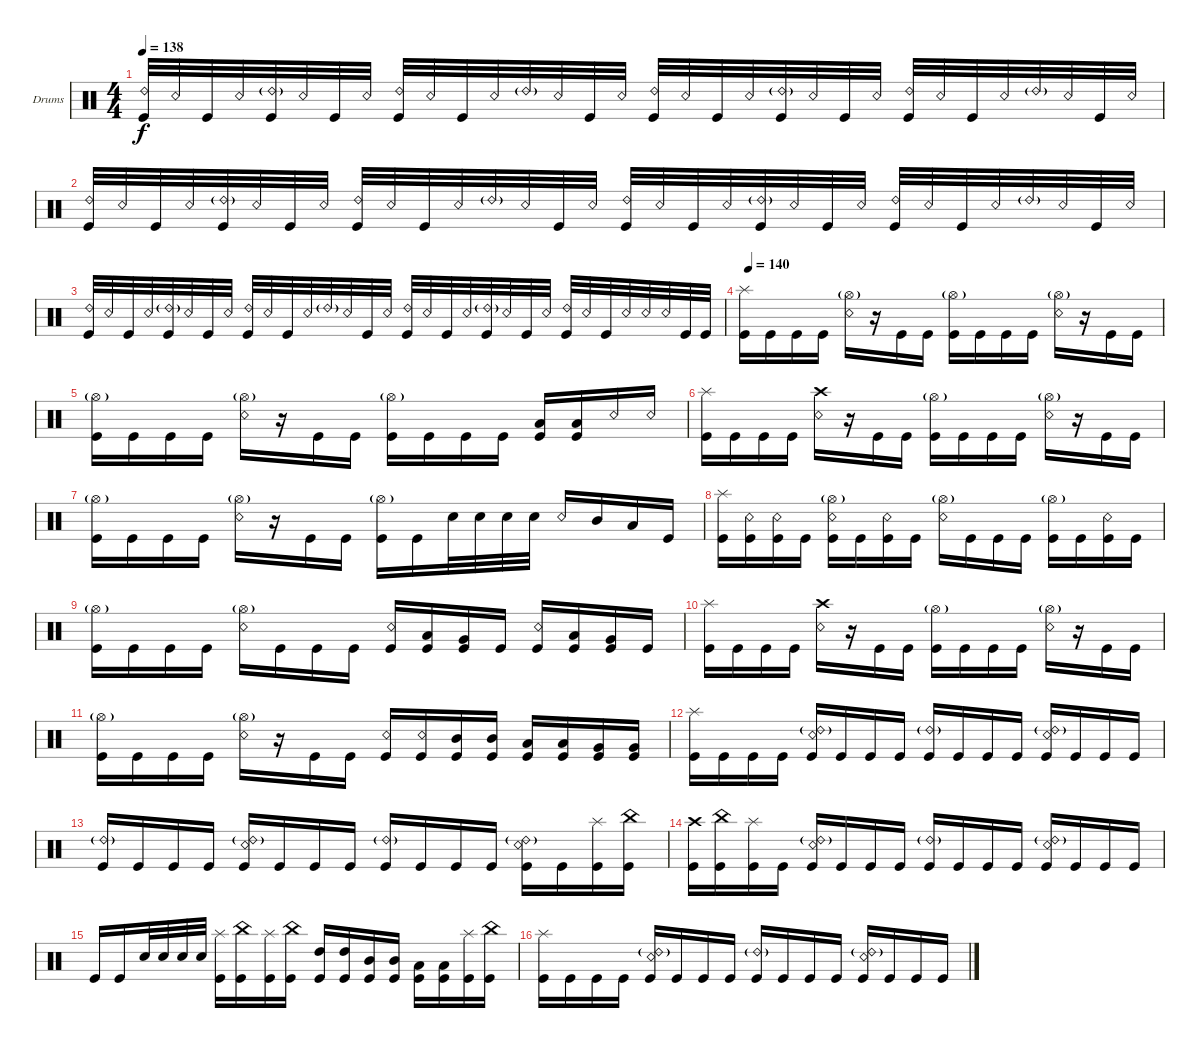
\defaultSystemsLayout 4
\bracketExtendMode groupsimilarinstruments
\firstSystemTrackNameOrientation horizontal
\otherSystemsTrackNameOrientation horizontal
\track ("Drumkit" "Drums") {instrument percussion}
\staff {score}
\articulation defaults
\ts (4 4)
\tempo 138
\clef neutral
\ks c
("Ride (bell) 2" "Kick (hit)").32{dy f} "Snare (rim shot)".32 "Kick (hit)".32 "Snare (rim shot)".32 ("Kick (hit)" "Ride (bell) 2"{g}).32 "Snare (rim shot)".32 "Kick (hit)".32 "Snare (rim shot)".32 ("Ride (bell) 2" "Kick (hit)").32 "Snare (rim shot)".32 "Kick (hit)".32 "Snare (rim shot)".32 "Ride (bell) 2"{g}.32 "Snare (rim shot)".32 "Kick (hit)".32 "Snare (rim shot)".32 ("Ride (bell) 2" "Kick (hit)").32 "Snare (rim shot)".32 "Kick (hit)".32 "Snare (rim shot)".32 ("Kick (hit)" "Ride (bell) 2"{g}).32 "Snare (rim shot)".32 "Kick (hit)".32 "Snare (rim shot)".32 ("Ride (bell) 2" "Kick (hit)").32 "Snare (rim shot)".32 "Kick (hit)".32 "Snare (rim shot)".32 "Ride (bell) 2"{g}.32 "Snare (rim shot)".32 "Kick (hit)".32 "Snare (rim shot)".32 |
("Ride (bell) 2" "Kick (hit)").32 "Snare (rim shot)".32 "Kick (hit)".32 "Snare (rim shot)".32 ("Kick (hit)" "Ride (bell) 2"{g}).32 "Snare (rim shot)".32 "Kick (hit)".32 "Snare (rim shot)".32 ("Ride (bell) 2" "Kick (hit)").32 "Snare (rim shot)".32 "Kick (hit)".32 "Snare (rim shot)".32 "Ride (bell) 2"{g}.32 "Snare (rim shot)".32 "Kick (hit)".32 "Snare (rim shot)".32 ("Ride (bell) 2" "Kick (hit)").32 "Snare (rim shot)".32 "Kick (hit)".32 "Snare (rim shot)".32 ("Kick (hit)" "Ride (bell) 2"{g}).32 "Snare (rim shot)".32 "Kick (hit)".32 "Snare (rim shot)".32 ("Ride (bell) 2" "Kick (hit)").32 "Snare (rim shot)".32 "Kick (hit)".32 "Snare (rim shot)".32 "Ride (bell) 2"{g}.32 "Snare (rim shot)".32 "Kick (hit)".32 "Snare (rim shot)".32 |
("Ride (bell) 2" "Kick (hit)").32 "Snare (rim shot)".32 "Kick (hit)".32 "Snare (rim shot)".32 ("Kick (hit)" "Ride (bell) 2"{g}).32 "Snare (rim shot)".32 "Kick (hit)".32 "Snare (rim shot)".32 ("Ride (bell) 2" "Kick (hit)").32 "Snare (rim shot)".32 "Kick (hit)".32 "Snare (rim shot)".32 "Ride (bell) 2"{g}.32 "Snare (rim shot)".32 "Kick (hit)".32 "Snare (rim shot)".32 ("Ride (bell) 2" "Kick (hit)").32 "Snare (rim shot)".32 "Kick (hit)".32 "Snare (rim shot)".32 ("Kick (hit)" "Ride (bell) 2"{g}).32 "Snare (rim shot)".32 "Kick (hit)".32 "Snare (rim shot)".32 ("Ride (bell) 2" "Kick (hit)").32 "Snare (rim shot)".32 "Kick (hit)".32 "Snare (rim shot)".32 "Snare (rim shot)".32 "Snare (rim shot)".32 "Kick (hit)".32 "Kick (hit)".32 |
\tempo (140 0.0125)
("Kick (hit)" "Splash (hit)").16 "Kick (hit)".16 "Kick (hit)".16 "Kick (hit)".16 ("Snare (rim shot)" "Hi-Hat (open)"{g}).16 r.16 "Kick (hit)".16 "Kick (hit)".16 ("Kick (hit)" "Hi-Hat (open)"{g}).16 "Kick (hit)".16 "Kick (hit)".16 "Kick (hit)".16 ("Snare (rim shot)" "Hi-Hat (open)"{g}).16 r.16 "Kick (hit)".16 "Kick (hit)".16 |
("Kick (hit)" "Hi-Hat (open)"{g}).16 "Kick (hit)".16 "Kick (hit)".16 "Kick (hit)".16 ("Snare (rim shot)" "Hi-Hat (open)"{g}).16 r.16 "Kick (hit)".16 "Kick (hit)".16 ("Kick (hit)" "Hi-Hat (open)"{g}).16 "Kick (hit)".16 "Kick (hit)".16 "Kick (hit)".16 ("Low Tom (hit)" "Kick (hit)").16 ("Low Tom (hit)" "Kick (hit)").16 "Snare (rim shot)".16 "Snare (rim shot)".16 |
("Kick (hit)" "Splash (hit)").16 "Kick (hit)".16 "Kick (hit)".16 "Kick (hit)".16 ("Snare (rim shot)" "Crash high (hit)").16 r.16 "Kick (hit)".16 "Kick (hit)".16 ("Kick (hit)" "Hi-Hat (open)"{g}).16 "Kick (hit)".16 "Kick (hit)".16 "Kick (hit)".16 ("Snare (rim shot)" "Hi-Hat (open)"{g}).16 r.16 "Kick (hit)".16 "Kick (hit)".16 |
("Kick (hit)" "Hi-Hat (open)"{g}).16 "Kick (hit)".16 "Kick (hit)".16 "Kick (hit)".16 ("Snare (rim shot)" "Hi-Hat (open)"{g}).16 r.16 "Kick (hit)".16 "Kick (hit)".16 ("Kick (hit)" "Hi-Hat (open)"{g}).16 "Kick (hit)".16 "Snare (hit) 2".32 "Snare (hit) 2".32 "Snare (hit) 2".32 "Snare (hit) 2".32 "Snare (rim shot)".16 "Mid Tom (hit)".16 "Low Tom (hit)".16 "Kick (hit)".16 |
("Splash (hit)" "Kick (hit)").16 ("Snare (rim shot)" "Kick (hit)").16 ("Snare (rim shot)" "Kick (hit)").16 "Kick (hit)".16 ("Snare (rim shot)" "Kick (hit)" "Hi-Hat (open)"{g}).16 "Kick (hit)".16 ("Snare (rim shot)" "Kick (hit)").16 "Kick (hit)".16 ("Snare (rim shot)" "Hi-Hat (open)"{g}).16 "Kick (hit)".16 "Kick (hit)".16 "Kick (hit)".16 ("Kick (hit)" "Hi-Hat (open)"{g}).16 "Kick (hit)".16 ("Kick (hit)" "Snare (rim shot)").16 "Kick (hit)".16 |
("Kick (hit)" "Hi-Hat (open)"{g}).16 "Kick (hit)".16 "Kick (hit)".16 "Kick (hit)".16 ("Snare (rim shot)" "Hi-Hat (open)"{g}).16 "Kick (hit)".16 "Kick (hit)".16 "Kick (hit)".16 ("Snare (rim shot)" "Kick (hit)").16 ("Low Tom (hit)" "Kick (hit)").16 ("Very Low Tom (hit)" "Kick (hit)").16 "Kick (hit)".16 ("Snare (rim shot)" "Kick (hit)").16 ("Low Tom (hit)" "Kick (hit)").16 ("Very Low Tom (hit)" "Kick (hit)").16 "Kick (hit)".16 |
("Kick (hit)" "Splash (hit)").16 "Kick (hit)".16 "Kick (hit)".16 "Kick (hit)".16 ("Snare (rim shot)" "Crash high (hit)").16 r.16 "Kick (hit)".16 "Kick (hit)".16 ("Kick (hit)" "Hi-Hat (open)"{g}).16 "Kick (hit)".16 "Kick (hit)".16 "Kick (hit)".16 ("Snare (rim shot)" "Hi-Hat (open)"{g}).16 r.16 "Kick (hit)".16 "Kick (hit)".16 |
("Kick (hit)" "Hi-Hat (open)"{g}).16 "Kick (hit)".16 "Kick (hit)".16 "Kick (hit)".16 ("Snare (rim shot)" "Hi-Hat (open)"{g}).16 r.16 "Kick (hit)".16 "Kick (hit)".16 ("Snare (rim shot)" "Kick (hit)").16 ("Snare (rim shot)" "Kick (hit)").16 ("Mid Tom (hit)" "Kick (hit)").16 ("Mid Tom (hit)" "Kick (hit)").16 ("Low Tom (hit)" "Kick (hit)").16 ("Low Tom (hit)" "Kick (hit)").16 ("Very Low Tom (hit)" "Kick (hit)").16 ("Very Low Tom (hit)" "Kick (hit)").16 |
("Kick (hit)" "Splash (hit)").16 "Kick (hit)".16 "Kick (hit)".16 "Kick (hit)".16 ("Kick (hit)" "Snare (rim shot)" "Ride (bell) 2"{g}).16 "Kick (hit)".16 "Kick (hit)".16 "Kick (hit)".16 ("Kick (hit)" "Ride (bell) 2"{g}).16 "Kick (hit)".16 "Kick (hit)".16 "Kick (hit)".16 ("Kick (hit)" "Snare (rim shot)" "Ride (bell) 2"{g}).16 "Kick (hit)".16 "Kick (hit)".16 "Kick (hit)".16 |
("Kick (hit)" "Ride (bell) 2"{g}).16 "Kick (hit)".16 "Kick (hit)".16 "Kick (hit)".16 ("Kick (hit)" "Snare (rim shot)" "Ride (bell) 2"{g}).16 "Kick (hit)".16 "Kick (hit)".16 "Kick (hit)".16 ("Kick (hit)" "Ride (bell) 2"{g}).16 "Kick (hit)".16 "Kick (hit)".16 "Kick (hit)".16 ("Kick (hit)" "Snare (rim shot)" "Ride (bell) 2"{g}).16 "Kick (hit)".16 ("Kick (hit)" "Splash (hit)").16 ("Kick (hit)" "China (hit)").16 |
("Kick (hit)" "Crash high (hit)").16 ("Kick (hit)" "China (hit)").16 ("Kick (hit)" "Splash (hit)").16 "Kick (hit)".16 ("Kick (hit)" "Snare (rim shot)" "Ride (bell) 2"{g}).16 "Kick (hit)".16 "Kick (hit)".16 "Kick (hit)".16 ("Kick (hit)" "Ride (bell) 2"{g}).16 "Kick (hit)".16 "Kick (hit)".16 "Kick (hit)".16 ("Kick (hit)" "Snare (rim shot)" "Ride (bell) 2"{g}).16 "Kick (hit)".16 "Kick (hit)".16 "Kick (hit)".16 |
"Kick (hit)".16 "Kick (hit)".16 "Snare (hit) 2".32 "Snare (hit) 2".32 "Snare (hit) 2".32 "Snare (hit) 2".32 ("Kick (hit)" "Splash (hit)").16 ("China (hit)" "Kick (hit)").16 ("Kick (hit)" "Splash (hit)").16 ("China (hit)" "Kick (hit)").16 ("High Tom (hit)" "Kick (hit)").16 ("High Tom (hit)" "Kick (hit)").16 ("Mid Tom (hit)" "Kick (hit)").16 ("Mid Tom (hit)" "Kick (hit)").16 ("Low Tom (hit)" "Kick (hit)").16 ("Low Tom (hit)" "Kick (hit)").16 ("Kick (hit)" "Splash (hit)").16 ("Kick (hit)" "China (hit)").16 |
("Kick (hit)" "Splash (hit)").16 "Kick (hit)".16 "Kick (hit)".16 "Kick (hit)".16 ("Kick (hit)" "Snare (rim shot)" "Ride (bell) 2"{g}).16 "Kick (hit)".16 "Kick (hit)".16 "Kick (hit)".16 ("Kick (hit)" "Ride (bell) 2"{g}).16 "Kick (hit)".16 "Kick (hit)".16 "Kick (hit)".16 ("Kick (hit)" "Snare (rim shot)" "Ride (bell) 2"{g}).16 "Kick (hit)".16 "Kick (hit)".16 "Kick (hit)".16
